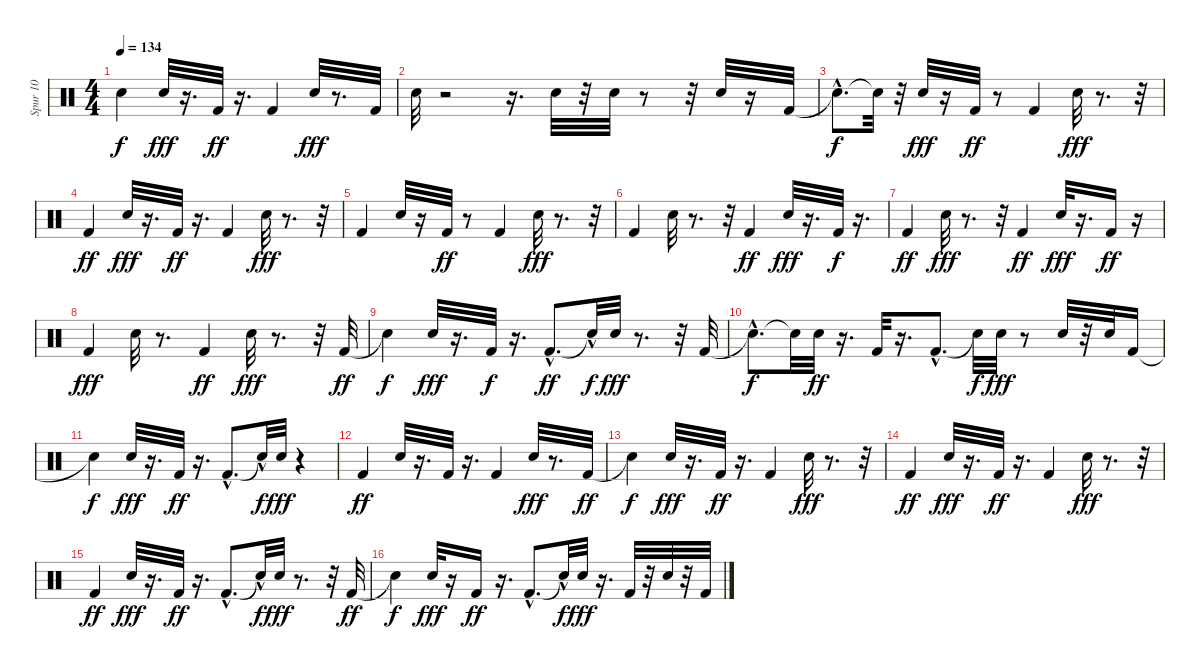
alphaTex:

\track ("Spur 10" "Spur 10") {instrument percussion}
\staff {score}
\articulation defaults
\ts (4 4)
\tempo 134
\clef neutral
\ks c "Snare (hit)"{t}.4{dy f} "Electric Snare (hit)".32{dy fff}
r.16{d} "Kick (hit) 2".32{dy ff} r.16{d} "Kick (hit) 2".4 "Electric Snare (hit)".32{dy fff} r.8{d} "Kick (hit) 2".32 |
"Electric Snare (hit)".32 r.2 r.16{d} "Electric Snare (hit)".32 r.32 "Electric Snare (hit)".32 r.8 r.32 "Electric Snare (hit)".32 r.16 "Kick (hit) 2".32 |
"Snare (hit)"{hac t}.8{d dy f} "Snare (hit)"{t}.32 r.32 "Electric Snare (hit)".32{dy fff} r.16 "Kick (hit) 2".32{dy ff} r.8 "Kick (hit) 2".4 "Electric Snare (hit)".32{dy fff} r.8{d} r.32 |
"Kick (hit) 2".4{dy ff} "Electric Snare (hit)".32{dy fff} r.16{d} "Kick (hit) 2".32{dy ff} r.16{d} "Kick (hit) 2".4 "Electric Snare (hit)".32{dy fff} r.8{d} r.32 |
"Kick (hit) 2".4 "Electric Snare (hit)".32 r.16 "Kick (hit) 2".32{dy ff} r.8 "Kick (hit) 2".4 "Electric Snare (hit)".32{dy fff} r.8{d} r.32 |
"Kick (hit) 2".4 "Electric Snare (hit)".32 r.8{d} r.32 "Kick (hit) 2".4{dy ff} "Electric Snare (hit)".32{dy fff} r.16{d} "Kick (hit) 2".32{dy f} r.16{d} |
"Kick (hit) 2".4{dy ff} "Electric Snare (hit)".32{dy fff} r.8{d} r.32 "Kick (hit) 2".4{dy ff} "Electric Snare (hit)".32{dy fff} r.16{d} "Kick (hit) 2".16{dy ff} r.16 |
"Kick (hit) 2".4{dy fff} "Electric Snare (hit)".32 r.8{d} "Kick (hit) 2".4{dy ff} "Electric Snare (hit)".32{dy fff} r.8{d} r.32 "Kick (hit) 2".32{dy ff} |
"Snare (hit)"{t}.4{dy f} "Electric Snare (hit)".32{dy fff} r.16{d} "Kick (hit) 2".32{dy f} r.16{d} "Kick (hit) 2"{hac}.8{d dy ff} "Snare (hit)"{hac t}.32{dy f} "Electric Snare (hit)".32{dy fff} r.8{d} r.32 "Kick (hit) 2".32 |
"Snare (hit)"{hac t}.8{d dy f} "Snare (hit)"{t}.32 "Electric Snare (hit)".32{dy ff} r.16{d} "Kick (hit) 2".32 r.16{d} "Kick (hit) 2"{hac}.8{d} "Snare (hit)"{t}.32{dy f} "Electric Snare (hit)".32{dy fff} r.8 "Electric Snare (hit)".32 r.32 "Electric Snare (hit)".32 "Kick (hit) 2".16 |
"Snare (hit)"{t}.4{dy f} "Electric Snare (hit)".32{dy fff} r.16{d} "Kick (hit) 2".32{dy ff} r.16{d} "Kick (hit) 2"{hac}.8{d} "Snare (hit)"{hac t}.32{dy f} "Electric Snare (hit)".32{dy fff} r.4 |
"Kick (hit) 2".4{dy ff} "Electric Snare (hit)".32 r.16{d} "Kick (hit) 2".32 r.16{d} "Kick (hit) 2".4 "Electric Snare (hit)".32{dy fff} r.8{d} "Kick (hit) 2".32{dy ff} |
"Snare (hit)"{t}.4{dy f} "Electric Snare (hit)".32{dy fff} r.16{d} "Kick (hit) 2".32{dy ff} r.16{d} "Kick (hit) 2".4 "Electric Snare (hit)".32{dy fff} r.8{d} r.32 |
"Kick (hit) 2".4{dy ff} "Electric Snare (hit)".32{dy fff} r.16{d} "Kick (hit) 2".32{dy ff} r.16{d} "Kick (hit) 2".4 "Electric Snare (hit)".32{dy fff} r.8{d} r.32 |
"Kick (hit) 2".4{dy ff} "Electric Snare (hit)".32{dy fff} r.16{d} "Kick (hit) 2".32{dy ff} r.16{d} "Kick (hit) 2"{hac}.8{d} "Snare (hit)"{hac t}.32{dy f} "Electric Snare (hit)".32{dy fff} r.8{d} r.32 "Kick (hit) 2".32{dy ff} |
"Snare (hit)"{t}.4{dy f} "Electric Snare (hit)".32{dy fff} r.16 "Kick (hit) 2".16{dy ff} r.16{d} "Kick (hit) 2"{hac}.8{d} "Snare (hit)"{hac t}.32{dy f} "Electric Snare (hit)".32{dy fff} r.16{d} "Kick (hit) 2".32 r.32 "Electric Snare (hit)".32 r.32 "Kick (hit) 2".32
